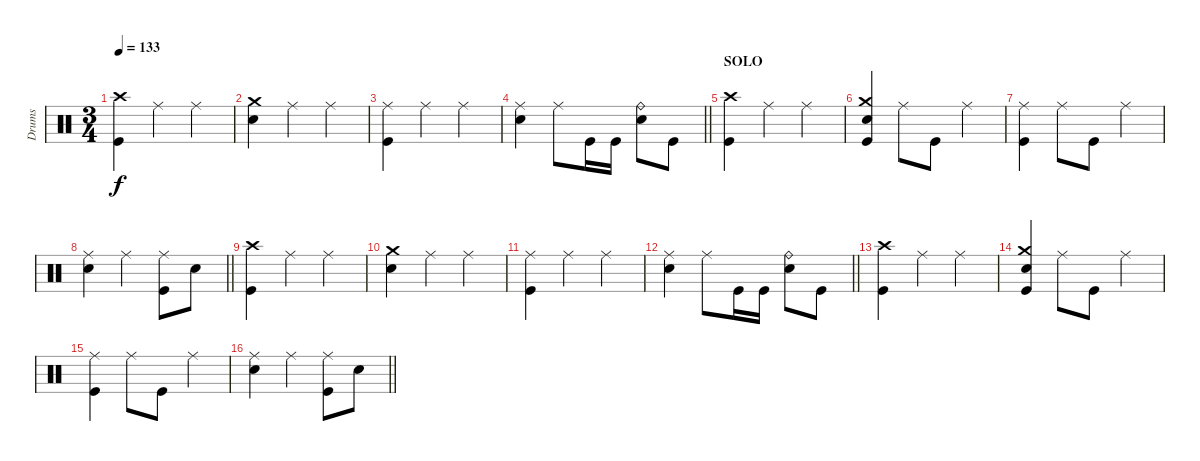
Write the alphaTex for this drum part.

\track ("Drums" "Drums") {instrument percussion}
\staff
\articulation defaults
\ts (3 4)
\tempo 133
\clef neutral
\ks c
("Crash high (hit)" "Kick (hit)").4{dy f} "Ride (middle)".4 "Ride (middle)".4 |
("Crash medium (hit)" "Electric Snare (hit)").4 "Ride (middle)".4 "Ride (middle)".4 |
("Ride (middle)" "Kick (hit)").4 "Ride (middle)".4 "Ride (middle)".4 |
\barLineRight lightlight
("Ride (middle)" "Electric Snare (hit)").4 "Ride (middle)".8 "Kick (hit)".16 "Kick (hit)".16 ("Ride (bell)" "Electric Snare (hit)").8 "Kick (hit)".8 |
\section ("" "SOLO")
("Crash high (hit)" "Kick (hit)").4 "Ride (middle)".4 "Ride (middle)".4 |
("Crash medium (hit)" "Electric Snare (hit)" "Kick (hit)").4 "Ride (middle)".8 "Kick (hit)".8 "Ride (middle)".4 |
("Ride (middle)" "Kick (hit)").4 "Ride (middle)".8 "Kick (hit)".8 "Ride (middle)".4 |
\barLineRight lightlight
("Ride (middle)" "Electric Snare (hit)").4 "Ride (middle)".4 ("Ride (middle)" "Kick (hit)").8 "Electric Snare (hit)".8 |
("Crash high (hit)" "Kick (hit)").4 "Ride (middle)".4 "Ride (middle)".4 |
("Crash medium (hit)" "Electric Snare (hit)").4 "Ride (middle)".4 "Ride (middle)".4 |
("Ride (middle)" "Kick (hit)").4 "Ride (middle)".4 "Ride (middle)".4 |
\barLineRight lightlight
("Ride (middle)" "Electric Snare (hit)").4 "Ride (middle)".8 "Kick (hit)".16 "Kick (hit)".16 ("Ride (bell)" "Electric Snare (hit)").8 "Kick (hit)".8 |
("Crash high (hit)" "Kick (hit)").4 "Ride (middle)".4 "Ride (middle)".4 |
("Crash medium (hit)" "Electric Snare (hit)" "Kick (hit)").4 "Ride (middle)".8 "Kick (hit)".8 "Ride (middle)".4 |
("Ride (middle)" "Kick (hit)").4 "Ride (middle)".8 "Kick (hit)".8 "Ride (middle)".4 |
\barLineRight lightlight
("Ride (middle)" "Electric Snare (hit)").4 "Ride (middle)".4 ("Ride (middle)" "Kick (hit)").8 "Electric Snare (hit)".8
